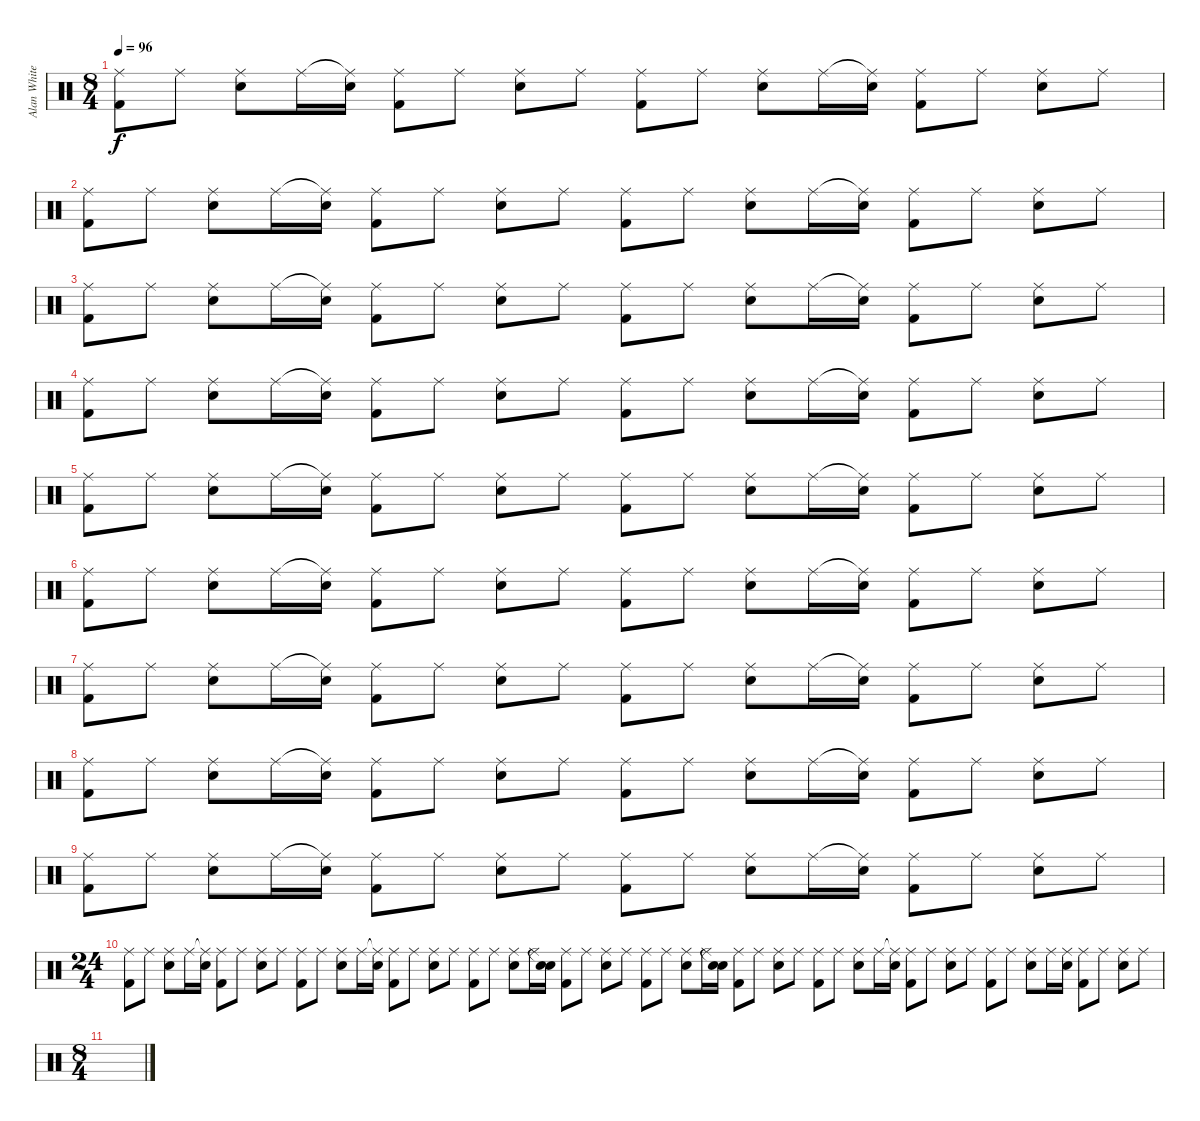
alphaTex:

\track ("Alan White" "Alan White") {instrument percussion}
\staff {score}
\articulation defaults
\ts (8 4)
\tempo 96
\clef neutral
\ks c
("Ride (middle)" "Kick (hit) 2").8{dy f} "Ride (middle)".8 ("Ride (middle)" "Electric Snare (hit)").8 "Ride (middle)".16 ("Ride (middle)"{t} "Electric Snare (hit)").16 ("Ride (middle)" "Kick (hit) 2").8 "Ride (middle)".8 ("Ride (middle)" "Electric Snare (hit)").8 "Ride (middle)".8 ("Ride (middle)" "Kick (hit) 2").8 "Ride (middle)".8 ("Ride (middle)" "Electric Snare (hit)").8 "Ride (middle)".16 ("Ride (middle)"{t} "Electric Snare (hit)").16 ("Ride (middle)" "Kick (hit) 2").8 "Ride (middle)".8 ("Ride (middle)" "Electric Snare (hit)").8 "Ride (middle)".8 |
("Ride (middle)" "Kick (hit) 2").8 "Ride (middle)".8 ("Ride (middle)" "Electric Snare (hit)").8 "Ride (middle)".16 ("Ride (middle)"{t} "Electric Snare (hit)").16 ("Ride (middle)" "Kick (hit) 2").8 "Ride (middle)".8 ("Ride (middle)" "Electric Snare (hit)").8 "Ride (middle)".8 ("Ride (middle)" "Kick (hit) 2").8 "Ride (middle)".8 ("Ride (middle)" "Electric Snare (hit)").8 "Ride (middle)".16 ("Ride (middle)"{t} "Electric Snare (hit)").16 ("Ride (middle)" "Kick (hit) 2").8 "Ride (middle)".8 ("Ride (middle)" "Electric Snare (hit)").8 "Ride (middle)".8 |
("Ride (middle)" "Kick (hit) 2").8 "Ride (middle)".8 ("Ride (middle)" "Electric Snare (hit)").8 "Ride (middle)".16 ("Ride (middle)"{t} "Electric Snare (hit)").16 ("Ride (middle)" "Kick (hit) 2").8 "Ride (middle)".8 ("Ride (middle)" "Electric Snare (hit)").8 "Ride (middle)".8 ("Ride (middle)" "Kick (hit) 2").8 "Ride (middle)".8 ("Ride (middle)" "Electric Snare (hit)").8 "Ride (middle)".16 ("Ride (middle)"{t} "Electric Snare (hit)").16 ("Ride (middle)" "Kick (hit) 2").8 "Ride (middle)".8 ("Ride (middle)" "Electric Snare (hit)").8 "Ride (middle)".8 |
("Ride (middle)" "Kick (hit) 2").8 "Ride (middle)".8 ("Ride (middle)" "Electric Snare (hit)").8 "Ride (middle)".16 ("Ride (middle)"{t} "Electric Snare (hit)").16 ("Ride (middle)" "Kick (hit) 2").8 "Ride (middle)".8 ("Ride (middle)" "Electric Snare (hit)").8 "Ride (middle)".8 ("Ride (middle)" "Kick (hit) 2").8 "Ride (middle)".8 ("Ride (middle)" "Electric Snare (hit)").8 "Ride (middle)".16 ("Ride (middle)"{t} "Electric Snare (hit)").16 ("Ride (middle)" "Kick (hit) 2").8 "Ride (middle)".8 ("Ride (middle)" "Electric Snare (hit)").8 "Ride (middle)".8 |
("Ride (middle)" "Kick (hit) 2").8 "Ride (middle)".8 ("Ride (middle)" "Electric Snare (hit)").8 "Ride (middle)".16 ("Ride (middle)"{t} "Electric Snare (hit)").16 ("Ride (middle)" "Kick (hit) 2").8 "Ride (middle)".8 ("Ride (middle)" "Electric Snare (hit)").8 "Ride (middle)".8 ("Ride (middle)" "Kick (hit) 2").8 "Ride (middle)".8 ("Ride (middle)" "Electric Snare (hit)").8 "Ride (middle)".16 ("Ride (middle)"{t} "Electric Snare (hit)").16 ("Ride (middle)" "Kick (hit) 2").8 "Ride (middle)".8 ("Ride (middle)" "Electric Snare (hit)").8 "Ride (middle)".8 |
("Ride (middle)" "Kick (hit) 2").8 "Ride (middle)".8 ("Ride (middle)" "Electric Snare (hit)").8 "Ride (middle)".16 ("Ride (middle)"{t} "Electric Snare (hit)").16 ("Ride (middle)" "Kick (hit) 2").8 "Ride (middle)".8 ("Ride (middle)" "Electric Snare (hit)").8 "Ride (middle)".8 ("Ride (middle)" "Kick (hit) 2").8 "Ride (middle)".8 ("Ride (middle)" "Electric Snare (hit)").8 "Ride (middle)".16 ("Ride (middle)"{t} "Electric Snare (hit)").16 ("Ride (middle)" "Kick (hit) 2").8 "Ride (middle)".8 ("Ride (middle)" "Electric Snare (hit)").8 "Ride (middle)".8 |
("Ride (middle)" "Kick (hit) 2").8 "Ride (middle)".8 ("Ride (middle)" "Electric Snare (hit)").8 "Ride (middle)".16 ("Ride (middle)"{t} "Electric Snare (hit)").16 ("Ride (middle)" "Kick (hit) 2").8 "Ride (middle)".8 ("Ride (middle)" "Electric Snare (hit)").8 "Ride (middle)".8 ("Ride (middle)" "Kick (hit) 2").8 "Ride (middle)".8 ("Ride (middle)" "Electric Snare (hit)").8 "Ride (middle)".16 ("Ride (middle)"{t} "Electric Snare (hit)").16 ("Ride (middle)" "Kick (hit) 2").8 "Ride (middle)".8 ("Ride (middle)" "Electric Snare (hit)").8 "Ride (middle)".8 |
("Ride (middle)" "Kick (hit) 2").8 "Ride (middle)".8 ("Ride (middle)" "Electric Snare (hit)").8 "Ride (middle)".16 ("Ride (middle)"{t} "Electric Snare (hit)").16 ("Ride (middle)" "Kick (hit) 2").8 "Ride (middle)".8 ("Ride (middle)" "Electric Snare (hit)").8 "Ride (middle)".8 ("Ride (middle)" "Kick (hit) 2").8 "Ride (middle)".8 ("Ride (middle)" "Electric Snare (hit)").8 "Ride (middle)".16 ("Ride (middle)"{t} "Electric Snare (hit)").16 ("Ride (middle)" "Kick (hit) 2").8 "Ride (middle)".8 ("Ride (middle)" "Electric Snare (hit)").8 "Ride (middle)".8 |
("Ride (middle)" "Kick (hit) 2").8 "Ride (middle)".8 ("Ride (middle)" "Electric Snare (hit)").8 "Ride (middle)".16 ("Ride (middle)"{t} "Electric Snare (hit)").16 ("Ride (middle)" "Kick (hit) 2").8 "Ride (middle)".8 ("Ride (middle)" "Electric Snare (hit)").8 "Ride (middle)".8 ("Ride (middle)" "Kick (hit) 2").8 "Ride (middle)".8 ("Ride (middle)" "Electric Snare (hit)").8 "Ride (middle)".16 ("Ride (middle)"{t} "Electric Snare (hit)").16 ("Ride (middle)" "Kick (hit) 2").8 "Ride (middle)".8 ("Ride (middle)" "Electric Snare (hit)").8 "Ride (middle)".8 |
\ts (24 4)
("Ride (middle)" "Kick (hit) 2").8 "Ride (middle)".8 ("Ride (middle)" "Electric Snare (hit)").8 "Ride (middle)".16 ("Ride (middle)"{t} "Electric Snare (hit)").16 ("Ride (middle)" "Kick (hit) 2").8 "Ride (middle)".8 ("Ride (middle)" "Electric Snare (hit)").8 "Ride (middle)".8 ("Ride (middle)" "Kick (hit) 2").8 "Ride (middle)".8 ("Ride (middle)" "Electric Snare (hit)").8 "Ride (middle)".16 ("Ride (middle)"{t} "Electric Snare (hit)").16 ("Ride (middle)" "Kick (hit) 2").8 "Ride (middle)".8 ("Ride (middle)" "Electric Snare (hit)").8 "Ride (middle)".8 ("Ride (middle)" "Kick (hit) 2").8 "Ride (middle)".8 ("Ride (middle)" "Electric Snare (hit)").8 "Ride (middle)".16 ("Snare (hit)"{t} "Electric Snare (hit)").16 ("Ride (middle)" "Kick (hit) 2").8 "Ride (middle)".8 ("Ride (middle)" "Electric Snare (hit)").8 "Ride (middle)".8 ("Ride (middle)" "Kick (hit) 2").8 "Ride (middle)".8 ("Ride (middle)" "Electric Snare (hit)").8 "Ride (middle)".16 ("Snare (hit)"{t} "Electric Snare (hit)").16 ("Ride (middle)" "Kick (hit) 2").8 "Ride (middle)".8 ("Ride (middle)" "Electric Snare (hit)").8 "Ride (middle)".8 ("Ride (middle)" "Kick (hit) 2").8 "Ride (middle)".8 ("Ride (middle)" "Electric Snare (hit)").8 "Ride (middle)".16 ("Ride (middle)"{t} "Electric Snare (hit)").16 ("Ride (middle)" "Kick (hit) 2").8 "Ride (middle)".8 ("Ride (middle)" "Electric Snare (hit)").8 "Ride (middle)".8 ("Ride (middle)" "Kick (hit) 2").8 "Ride (middle)".8 ("Ride (middle)" "Electric Snare (hit)").8 "Ride (middle)".16 ("Ride (middle)" "Electric Snare (hit)").16 ("Ride (middle)" "Kick (hit) 2").8 "Ride (middle)".8 ("Ride (middle)" "Electric Snare (hit)").8 "Ride (middle)".8 |
\ts (8 4)
